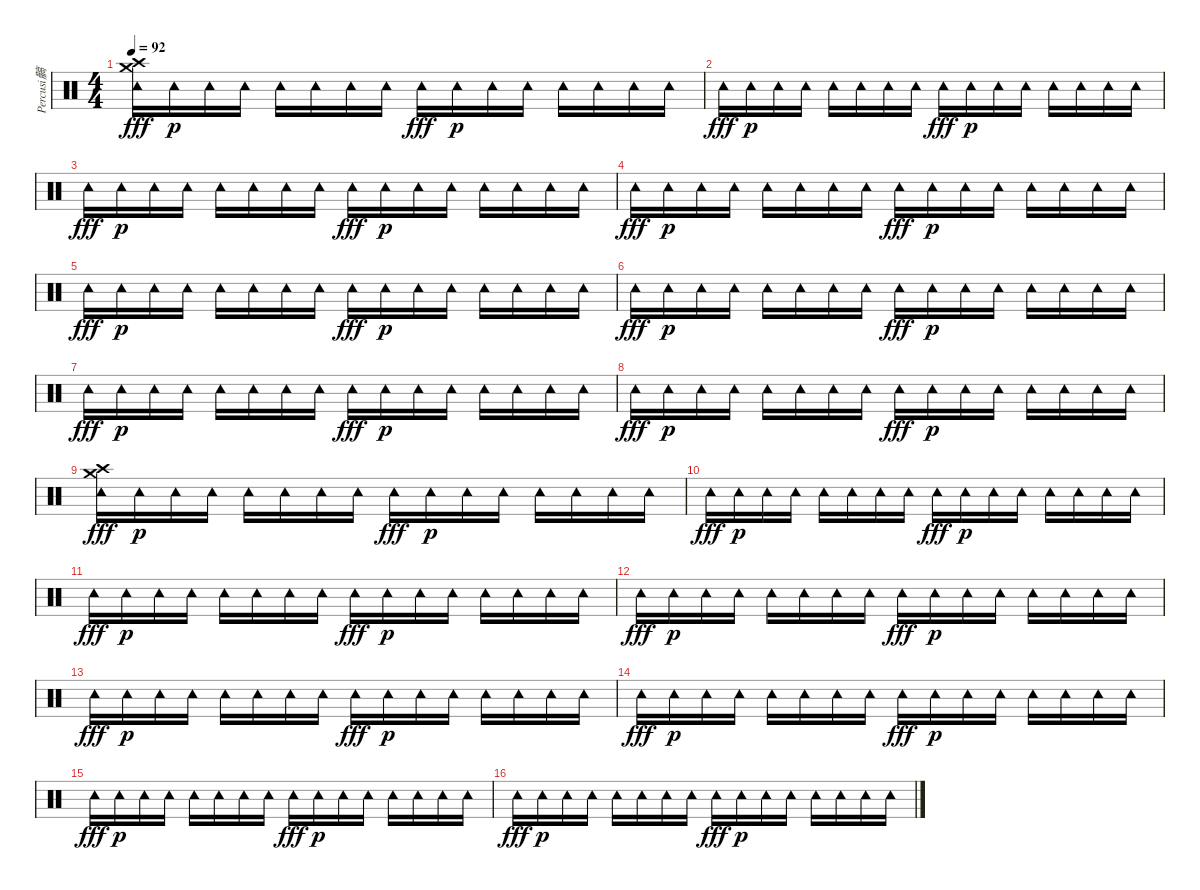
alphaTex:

\track ("Percusi髇" "Percusi髇") {instrument percussion}
\staff {score}
\articulation defaults
\ts (4 4)
\tempo 92
\clef neutral
\ks c
("Crash high (hit)" "Tambourine (hit)" "Crash medium (hit)").16{dy fff} "Tambourine (hit)".16{dy p} "Tambourine (hit)".16 "Tambourine (hit)".16 "Tambourine (hit)".16 "Tambourine (hit)".16 "Tambourine (hit)".16 "Tambourine (hit)".16 "Tambourine (hit)".16{dy fff} "Tambourine (hit)".16{dy p} "Tambourine (hit)".16 "Tambourine (hit)".16 "Tambourine (hit)".16 "Tambourine (hit)".16 "Tambourine (hit)".16 "Tambourine (hit)".16 |
"Tambourine (hit)".16{dy fff} "Tambourine (hit)".16{dy p} "Tambourine (hit)".16 "Tambourine (hit)".16 "Tambourine (hit)".16 "Tambourine (hit)".16 "Tambourine (hit)".16 "Tambourine (hit)".16 "Tambourine (hit)".16{dy fff} "Tambourine (hit)".16{dy p} "Tambourine (hit)".16 "Tambourine (hit)".16 "Tambourine (hit)".16 "Tambourine (hit)".16 "Tambourine (hit)".16 "Tambourine (hit)".16 |
"Tambourine (hit)".16{dy fff} "Tambourine (hit)".16{dy p} "Tambourine (hit)".16 "Tambourine (hit)".16 "Tambourine (hit)".16 "Tambourine (hit)".16 "Tambourine (hit)".16 "Tambourine (hit)".16 "Tambourine (hit)".16{dy fff} "Tambourine (hit)".16{dy p} "Tambourine (hit)".16 "Tambourine (hit)".16 "Tambourine (hit)".16 "Tambourine (hit)".16 "Tambourine (hit)".16 "Tambourine (hit)".16 |
"Tambourine (hit)".16{dy fff} "Tambourine (hit)".16{dy p} "Tambourine (hit)".16 "Tambourine (hit)".16 "Tambourine (hit)".16 "Tambourine (hit)".16 "Tambourine (hit)".16 "Tambourine (hit)".16 "Tambourine (hit)".16{dy fff} "Tambourine (hit)".16{dy p} "Tambourine (hit)".16 "Tambourine (hit)".16 "Tambourine (hit)".16 "Tambourine (hit)".16 "Tambourine (hit)".16 "Tambourine (hit)".16 |
"Tambourine (hit)".16{dy fff} "Tambourine (hit)".16{dy p} "Tambourine (hit)".16 "Tambourine (hit)".16 "Tambourine (hit)".16 "Tambourine (hit)".16 "Tambourine (hit)".16 "Tambourine (hit)".16 "Tambourine (hit)".16{dy fff} "Tambourine (hit)".16{dy p} "Tambourine (hit)".16 "Tambourine (hit)".16 "Tambourine (hit)".16 "Tambourine (hit)".16 "Tambourine (hit)".16 "Tambourine (hit)".16 |
"Tambourine (hit)".16{dy fff} "Tambourine (hit)".16{dy p} "Tambourine (hit)".16 "Tambourine (hit)".16 "Tambourine (hit)".16 "Tambourine (hit)".16 "Tambourine (hit)".16 "Tambourine (hit)".16 "Tambourine (hit)".16{dy fff} "Tambourine (hit)".16{dy p} "Tambourine (hit)".16 "Tambourine (hit)".16 "Tambourine (hit)".16 "Tambourine (hit)".16 "Tambourine (hit)".16 "Tambourine (hit)".16 |
"Tambourine (hit)".16{dy fff} "Tambourine (hit)".16{dy p} "Tambourine (hit)".16 "Tambourine (hit)".16 "Tambourine (hit)".16 "Tambourine (hit)".16 "Tambourine (hit)".16 "Tambourine (hit)".16 "Tambourine (hit)".16{dy fff} "Tambourine (hit)".16{dy p} "Tambourine (hit)".16 "Tambourine (hit)".16 "Tambourine (hit)".16 "Tambourine (hit)".16 "Tambourine (hit)".16 "Tambourine (hit)".16 |
"Tambourine (hit)".16{dy fff} "Tambourine (hit)".16{dy p} "Tambourine (hit)".16 "Tambourine (hit)".16 "Tambourine (hit)".16 "Tambourine (hit)".16 "Tambourine (hit)".16 "Tambourine (hit)".16 "Tambourine (hit)".16{dy fff} "Tambourine (hit)".16{dy p} "Tambourine (hit)".16 "Tambourine (hit)".16 "Tambourine (hit)".16 "Tambourine (hit)".16 "Tambourine (hit)".16 "Tambourine (hit)".16 |
("Crash high (hit)" "Tambourine (hit)" "Crash medium (hit)").16{dy fff} "Tambourine (hit)".16{dy p} "Tambourine (hit)".16 "Tambourine (hit)".16 "Tambourine (hit)".16 "Tambourine (hit)".16 "Tambourine (hit)".16 "Tambourine (hit)".16 "Tambourine (hit)".16{dy fff} "Tambourine (hit)".16{dy p} "Tambourine (hit)".16 "Tambourine (hit)".16 "Tambourine (hit)".16 "Tambourine (hit)".16 "Tambourine (hit)".16 "Tambourine (hit)".16 |
"Tambourine (hit)".16{dy fff} "Tambourine (hit)".16{dy p} "Tambourine (hit)".16 "Tambourine (hit)".16 "Tambourine (hit)".16 "Tambourine (hit)".16 "Tambourine (hit)".16 "Tambourine (hit)".16 "Tambourine (hit)".16{dy fff} "Tambourine (hit)".16{dy p} "Tambourine (hit)".16 "Tambourine (hit)".16 "Tambourine (hit)".16 "Tambourine (hit)".16 "Tambourine (hit)".16 "Tambourine (hit)".16 |
"Tambourine (hit)".16{dy fff} "Tambourine (hit)".16{dy p} "Tambourine (hit)".16 "Tambourine (hit)".16 "Tambourine (hit)".16 "Tambourine (hit)".16 "Tambourine (hit)".16 "Tambourine (hit)".16 "Tambourine (hit)".16{dy fff} "Tambourine (hit)".16{dy p} "Tambourine (hit)".16 "Tambourine (hit)".16 "Tambourine (hit)".16 "Tambourine (hit)".16 "Tambourine (hit)".16 "Tambourine (hit)".16 |
"Tambourine (hit)".16{dy fff} "Tambourine (hit)".16{dy p} "Tambourine (hit)".16 "Tambourine (hit)".16 "Tambourine (hit)".16 "Tambourine (hit)".16 "Tambourine (hit)".16 "Tambourine (hit)".16 "Tambourine (hit)".16{dy fff} "Tambourine (hit)".16{dy p} "Tambourine (hit)".16 "Tambourine (hit)".16 "Tambourine (hit)".16 "Tambourine (hit)".16 "Tambourine (hit)".16 "Tambourine (hit)".16 |
"Tambourine (hit)".16{dy fff} "Tambourine (hit)".16{dy p} "Tambourine (hit)".16 "Tambourine (hit)".16 "Tambourine (hit)".16 "Tambourine (hit)".16 "Tambourine (hit)".16 "Tambourine (hit)".16 "Tambourine (hit)".16{dy fff} "Tambourine (hit)".16{dy p} "Tambourine (hit)".16 "Tambourine (hit)".16 "Tambourine (hit)".16 "Tambourine (hit)".16 "Tambourine (hit)".16 "Tambourine (hit)".16 |
"Tambourine (hit)".16{dy fff} "Tambourine (hit)".16{dy p} "Tambourine (hit)".16 "Tambourine (hit)".16 "Tambourine (hit)".16 "Tambourine (hit)".16 "Tambourine (hit)".16 "Tambourine (hit)".16 "Tambourine (hit)".16{dy fff} "Tambourine (hit)".16{dy p} "Tambourine (hit)".16 "Tambourine (hit)".16 "Tambourine (hit)".16 "Tambourine (hit)".16 "Tambourine (hit)".16 "Tambourine (hit)".16 |
"Tambourine (hit)".16{dy fff} "Tambourine (hit)".16{dy p} "Tambourine (hit)".16 "Tambourine (hit)".16 "Tambourine (hit)".16 "Tambourine (hit)".16 "Tambourine (hit)".16 "Tambourine (hit)".16 "Tambourine (hit)".16{dy fff} "Tambourine (hit)".16{dy p} "Tambourine (hit)".16 "Tambourine (hit)".16 "Tambourine (hit)".16 "Tambourine (hit)".16 "Tambourine (hit)".16 "Tambourine (hit)".16 |
"Tambourine (hit)".16{dy fff} "Tambourine (hit)".16{dy p} "Tambourine (hit)".16 "Tambourine (hit)".16 "Tambourine (hit)".16 "Tambourine (hit)".16 "Tambourine (hit)".16 "Tambourine (hit)".16 "Tambourine (hit)".16{dy fff} "Tambourine (hit)".16{dy p} "Tambourine (hit)".16 "Tambourine (hit)".16 "Tambourine (hit)".16 "Tambourine (hit)".16 "Tambourine (hit)".16 "Tambourine (hit)".16
